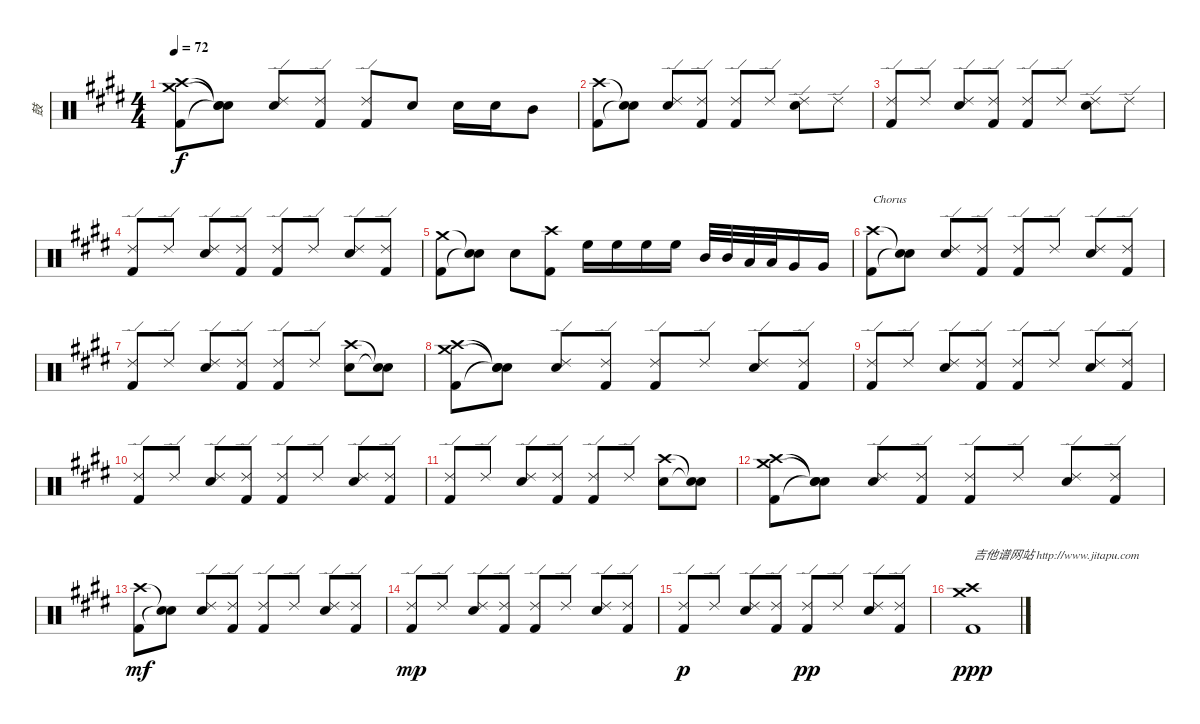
\track ("鼓" "鼓") {instrument percussion}
\staff {score}
\articulation defaults
\ts (4 4)
\tempo 72
\clef neutral
\ks e
("Crash high (hit)" "Crash medium (hit)" "Kick (hit) 2").8{dy f} ("Snare (hit)"{t} "Snare (hit)"{t} "Snare (hit)"{t}).8 ("Ride (edge) 2" "Electric Snare (hit)").8 ("Ride (edge) 2" "Kick (hit) 2").8 ("Ride (edge) 2" "Kick (hit) 2").8 "Electric Snare (hit)".8 "Electric Snare (hit)".16 "Electric Snare (hit)".16 "Mid Tom (hit)".8 |
("Crash high (hit)" "Kick (hit) 2").8 ("Snare (hit)"{t} "Snare (hit)"{t}).8 ("Ride (edge) 2" "Electric Snare (hit)").8 ("Ride (edge) 2" "Kick (hit) 2").8 ("Ride (edge) 2" "Kick (hit) 2").8 "Ride (edge) 2".8 ("Ride (edge) 2" "Electric Snare (hit)").8 "Ride (edge) 2".8 |
("Ride (edge) 2" "Kick (hit) 2").8 "Ride (edge) 2".8 ("Ride (edge) 2" "Electric Snare (hit)").8 ("Ride (edge) 2" "Kick (hit) 2").8 ("Ride (edge) 2" "Kick (hit) 2").8 "Ride (edge) 2".8 ("Ride (edge) 2" "Electric Snare (hit)").8 "Ride (edge) 2".8 |
("Ride (edge) 2" "Kick (hit) 2").8 "Ride (edge) 2".8 ("Ride (edge) 2" "Electric Snare (hit)").8 ("Ride (edge) 2" "Kick (hit) 2").8 ("Ride (edge) 2" "Kick (hit) 2").8 "Ride (edge) 2".8 ("Ride (edge) 2" "Electric Snare (hit)").8 ("Ride (edge) 2" "Kick (hit) 2").8 |
("Crash medium (hit)" "Kick (hit) 2").8 ("Snare (hit)"{t} "Snare (hit)"{t}).8 "Electric Snare (hit)".8 ("Crash high (hit)" "Kick (hit) 2").8 "High Floor Tom (hit)".16 "High Floor Tom (hit)".16 "High Floor Tom (hit)".16 "High Floor Tom (hit)".16 "Mid Tom (hit)".32 "Mid Tom (hit)".32 "Low Tom (hit)".32 "Low Tom (hit)".32 "Very Low Tom (hit)".16 "Very Low Tom (hit)".16 |
("Crash high (hit)" "Kick (hit) 2").8{txt "Chorus"} ("Snare (hit)"{t} "Snare (hit)"{t}).8 ("Ride (edge) 2" "Electric Snare (hit)").8 ("Ride (edge) 2" "Kick (hit) 2").8 ("Ride (edge) 2" "Kick (hit) 2").8 "Ride (edge) 2".8 ("Ride (edge) 2" "Electric Snare (hit)").8 ("Ride (edge) 2" "Kick (hit) 2").8 |
("Ride (edge) 2" "Kick (hit) 2").8 "Ride (edge) 2".8 ("Ride (edge) 2" "Electric Snare (hit)").8 ("Ride (edge) 2" "Kick (hit) 2").8 ("Ride (edge) 2" "Kick (hit) 2").8 "Ride (edge) 2".8 ("Crash high (hit)" "Electric Snare (hit)").8 ("Snare (hit)"{t} "Snare (hit)"{t}).8 |
("Crash high (hit)" "Crash medium (hit)" "Kick (hit) 2").8 ("Snare (hit)"{t} "Snare (hit)"{t} "Snare (hit)"{t}).8 ("Ride (edge) 2" "Electric Snare (hit)").8 ("Ride (edge) 2" "Kick (hit) 2").8 ("Ride (edge) 2" "Kick (hit) 2").8 "Ride (edge) 2".8 ("Ride (edge) 2" "Electric Snare (hit)").8 ("Ride (edge) 2" "Kick (hit) 2").8 |
("Ride (edge) 2" "Kick (hit) 2").8 "Ride (edge) 2".8 ("Ride (edge) 2" "Electric Snare (hit)").8 ("Ride (edge) 2" "Kick (hit) 2").8 ("Ride (edge) 2" "Kick (hit) 2").8 "Ride (edge) 2".8 ("Ride (edge) 2" "Electric Snare (hit)").8 ("Ride (edge) 2" "Kick (hit) 2").8 |
("Ride (edge) 2" "Kick (hit) 2").8 "Ride (edge) 2".8 ("Ride (edge) 2" "Electric Snare (hit)").8 ("Ride (edge) 2" "Kick (hit) 2").8 ("Ride (edge) 2" "Kick (hit) 2").8 "Ride (edge) 2".8 ("Ride (edge) 2" "Electric Snare (hit)").8 ("Ride (edge) 2" "Kick (hit) 2").8 |
("Ride (edge) 2" "Kick (hit) 2").8 "Ride (edge) 2".8 ("Ride (edge) 2" "Electric Snare (hit)").8 ("Ride (edge) 2" "Kick (hit) 2").8 ("Ride (edge) 2" "Kick (hit) 2").8 "Ride (edge) 2".8 ("Crash high (hit)" "Electric Snare (hit)").8 ("Snare (hit)"{t} "Snare (hit)"{t}).8 |
("Crash high (hit)" "Crash medium (hit)" "Kick (hit) 2").8 ("Snare (hit)"{t} "Snare (hit)"{t} "Snare (hit)"{t}).8 ("Ride (edge) 2" "Electric Snare (hit)").8 ("Ride (edge) 2" "Kick (hit) 2").8 ("Ride (edge) 2" "Kick (hit) 2").8 "Ride (edge) 2".8 ("Ride (edge) 2" "Electric Snare (hit)").8 ("Ride (edge) 2" "Kick (hit) 2").8 |
("Crash high (hit)" "Kick (hit) 2").8{dy mf} ("Snare (hit)"{t} "Snare (hit)"{t}).8 ("Ride (edge) 2" "Electric Snare (hit)").8 ("Ride (edge) 2" "Kick (hit) 2").8 ("Ride (edge) 2" "Kick (hit) 2").8 "Ride (edge) 2".8 ("Ride (edge) 2" "Electric Snare (hit)").8 ("Ride (edge) 2" "Kick (hit) 2").8 |
("Ride (edge) 2" "Kick (hit) 2").8{dy mp} "Ride (edge) 2".8 ("Ride (edge) 2" "Electric Snare (hit)").8 ("Ride (edge) 2" "Kick (hit) 2").8 ("Ride (edge) 2" "Kick (hit) 2").8 "Ride (edge) 2".8 ("Ride (edge) 2" "Electric Snare (hit)").8 ("Ride (edge) 2" "Kick (hit) 2").8 |
("Ride (edge) 2" "Kick (hit) 2").8{dy p} "Ride (edge) 2".8 ("Ride (edge) 2" "Electric Snare (hit)").8 ("Ride (edge) 2" "Kick (hit) 2").8 ("Ride (edge) 2" "Kick (hit) 2").8{dy pp} "Ride (edge) 2".8 ("Ride (edge) 2" "Electric Snare (hit)").8 ("Ride (edge) 2" "Kick (hit) 2").8 |
("Crash high (hit)" "Crash medium (hit)" "Kick (hit) 2").1{txt "吉他谱网站 http://www.jitapu.com" dy ppp}
